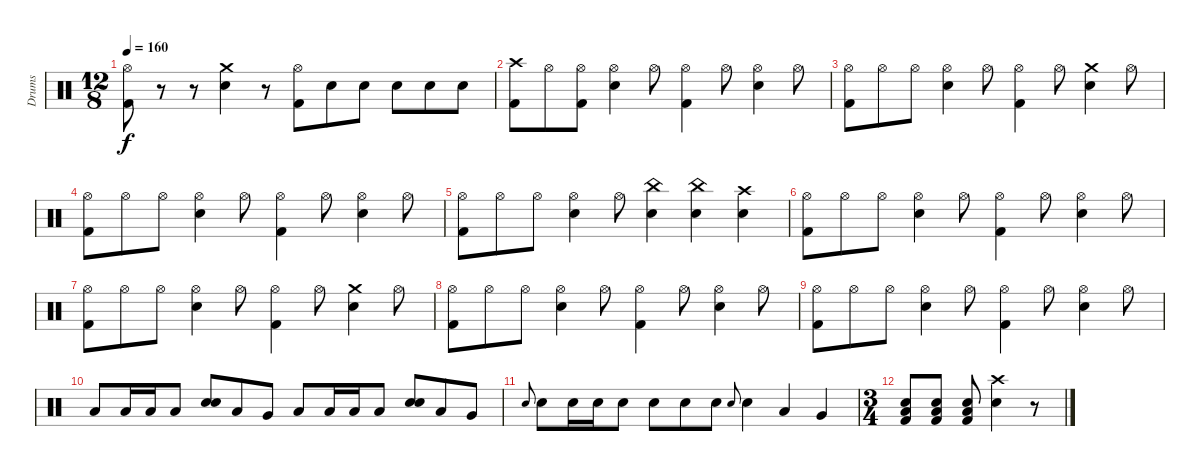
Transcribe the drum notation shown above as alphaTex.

\track ("Drums" "Drums") {instrument percussion}
\staff {score}
\articulation defaults
\ts (12 8)
\tempo 160
\clef neutral
\ks c
("Kick (hit) 2" "Hi-Hat (open)").8{dy f} r.8 r.8 ("Snare (hit) 2" "Crash medium (hit)").4 r.8 ("Kick (hit) 2" "Hi-Hat (open)").8 "Snare (hit) 2".8 "Snare (hit) 2".8 "Snare (hit) 2".8 "Snare (hit) 2".8 "Snare (hit) 2".8 |
("Kick (hit) 2" "Crash high (hit)").8 "Hi-Hat (open)".8 ("Kick (hit) 2" "Hi-Hat (open)").8 ("Snare (hit) 2" "Hi-Hat (open)").4 "Hi-Hat (open)".8 ("Kick (hit) 2" "Hi-Hat (open)").4 "Hi-Hat (open)".8 ("Snare (hit) 2" "Hi-Hat (open)").4 "Hi-Hat (open)".8 |
("Kick (hit) 2" "Hi-Hat (open)").8 "Hi-Hat (open)".8 "Hi-Hat (open)".8 ("Snare (hit) 2" "Hi-Hat (open)").4 "Hi-Hat (open)".8 ("Kick (hit) 2" "Hi-Hat (open)").4 "Hi-Hat (open)".8 ("Snare (hit) 2" "Crash medium (hit)").4 "Hi-Hat (open)".8 |
("Kick (hit) 2" "Hi-Hat (open)").8 "Hi-Hat (open)".8 "Hi-Hat (open)".8 ("Snare (hit) 2" "Hi-Hat (open)").4 "Hi-Hat (open)".8 ("Kick (hit) 2" "Hi-Hat (open)").4 "Hi-Hat (open)".8 ("Snare (hit) 2" "Hi-Hat (open)").4 "Hi-Hat (open)".8 |
("Kick (hit) 2" "Hi-Hat (open)").8 "Hi-Hat (open)".8 "Hi-Hat (open)".8 ("Snare (hit) 2" "Hi-Hat (open)").4 "Hi-Hat (open)".8 ("Snare (hit) 2" "China (hit)").4 ("Snare (hit) 2" "China (hit)").4 ("Snare (hit) 2" "Crash high (hit)").4 |
("Kick (hit) 2" "Hi-Hat (open)").8 "Hi-Hat (open)".8 "Hi-Hat (open)".8 ("Snare (hit) 2" "Hi-Hat (open)").4 "Hi-Hat (open)".8 ("Kick (hit) 2" "Hi-Hat (open)").4 "Hi-Hat (open)".8 ("Snare (hit) 2" "Hi-Hat (open)").4 "Hi-Hat (open)".8 |
("Kick (hit) 2" "Hi-Hat (open)").8 "Hi-Hat (open)".8 "Hi-Hat (open)".8 ("Snare (hit) 2" "Hi-Hat (open)").4 "Hi-Hat (open)".8 ("Kick (hit) 2" "Hi-Hat (open)").4 "Hi-Hat (open)".8 ("Snare (hit) 2" "Crash medium (hit)").4 "Hi-Hat (open)".8 |
("Kick (hit) 2" "Hi-Hat (open)").8 "Hi-Hat (open)".8 "Hi-Hat (open)".8 ("Snare (hit) 2" "Hi-Hat (open)").4 "Hi-Hat (open)".8 ("Kick (hit) 2" "Hi-Hat (open)").4 "Hi-Hat (open)".8 ("Snare (hit) 2" "Hi-Hat (open)").4 "Hi-Hat (open)".8 |
("Kick (hit) 2" "Hi-Hat (open)").8 "Hi-Hat (open)".8 "Hi-Hat (open)".8 ("Snare (hit) 2" "Hi-Hat (open)").4 "Hi-Hat (open)".8 ("Kick (hit) 2" "Hi-Hat (open)").4 "Hi-Hat (open)".8 ("Snare (hit) 2" "Hi-Hat (open)").4 "Hi-Hat (open)".8 |
"Low Tom (hit)".8 "Low Tom (hit)".16 "Low Tom (hit)".16 "Low Tom (hit)".8 ("Snare (hit) 2" "Snare (hit) 2").8 "Low Tom (hit)".8 "Very Low Tom (hit)".8 "Low Tom (hit)".8 "Low Tom (hit)".16 "Low Tom (hit)".16 "Low Tom (hit)".8 ("Snare (hit) 2" "Snare (hit) 2").8 "Low Tom (hit)".8 "Very Low Tom (hit)".8 |
"Snare (hit) 2".8{gr onbeat} "Snare (hit) 2".8 "Snare (hit) 2".16 "Snare (hit) 2".16 "Snare (hit) 2".8 "Snare (hit) 2".8 "Snare (hit) 2".8 "Snare (hit) 2".8 "Snare (hit) 2".8{gr onbeat} "Snare (hit) 2".4 "Low Tom (hit)".4 "Very Low Tom (hit)".4 |
\ts (3 4)
("Kick (hit) 2" "Snare (hit) 2" "Low Tom (hit)").8 ("Kick (hit) 2" "Snare (hit) 2" "Low Tom (hit)").8 ("Kick (hit) 2" "Snare (hit) 2" "Low Tom (hit)").8 ("Snare (hit) 2" "Crash high (hit)").4 r.8
